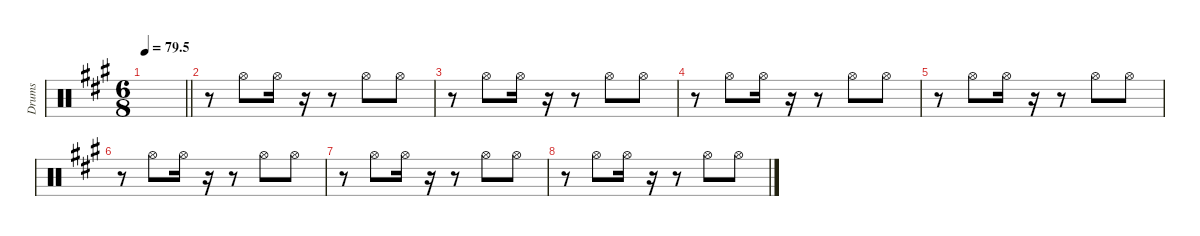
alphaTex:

\defaultSystemsLayout 4
\hideDynamics
\bracketExtendMode nobrackets
\otherSystemsTrackNameOrientation horizontal
\track ("Hihat" "Drums") {instrument percussion}
\staff {score}
\articulation defaults
\ts (6 8)
\tempo
79.5
\accidentals auto
\clef neutral
\ottava regular
\simile none
\scale
0.333333
\barLineRight lightlight
\ks a
|
\scale
0.333333 r.8 "Hi-Hat (open)"{acc forcenatural}.8 "Hi-Hat (open)"{acc forcenatural}.16 r.16 r.8 "Hi-Hat (open)"{acc forcenatural}.8 "Hi-Hat (open)"{acc forcenatural}.8 |
\scale
0.333333 r.8 "Hi-Hat (open)"{acc forcenatural}.8 "Hi-Hat (open)"{acc forcenatural}.16 r.16 r.8 "Hi-Hat (open)"{acc forcenatural}.8 "Hi-Hat (open)"{acc forcenatural}.8 |
\scale
0.333333 r.8 "Hi-Hat (open)"{acc forcenatural}.8 "Hi-Hat (open)"{acc forcenatural}.16 r.16 r.8 "Hi-Hat (open)"{acc forcenatural}.8 "Hi-Hat (open)"{acc forcenatural}.8 |
\scale
0.333333 r.8 "Hi-Hat (open)"{acc forcenatural}.8 "Hi-Hat (open)"{acc forcenatural}.16 r.16 r.8 "Hi-Hat (open)"{acc forcenatural}.8 "Hi-Hat (open)"{acc forcenatural}.8 |
\scale
0.333333 r.8 "Hi-Hat (open)"{acc forcenatural}.8 "Hi-Hat (open)"{acc forcenatural}.16 r.16 r.8 "Hi-Hat (open)"{acc forcenatural}.8 "Hi-Hat (open)"{acc forcenatural}.8 |
\scale
0.333333 r.8 "Hi-Hat (open)"{acc forcenatural}.8 "Hi-Hat (open)"{acc forcenatural}.16 r.16 r.8 "Hi-Hat (open)"{acc forcenatural}.8 "Hi-Hat (open)"{acc forcenatural}.8 |
\scale
0.333333 r.8 "Hi-Hat (open)"{acc forcenatural}.8 "Hi-Hat (open)"{acc forcenatural}.16 r.16 r.8 "Hi-Hat (open)"{acc forcenatural}.8 "Hi-Hat (open)"{acc forcenatural}.8 |
\scale
0.333333 |
\scale
0.333333 |
\scale
0.333333 |
\scale
0.333333
